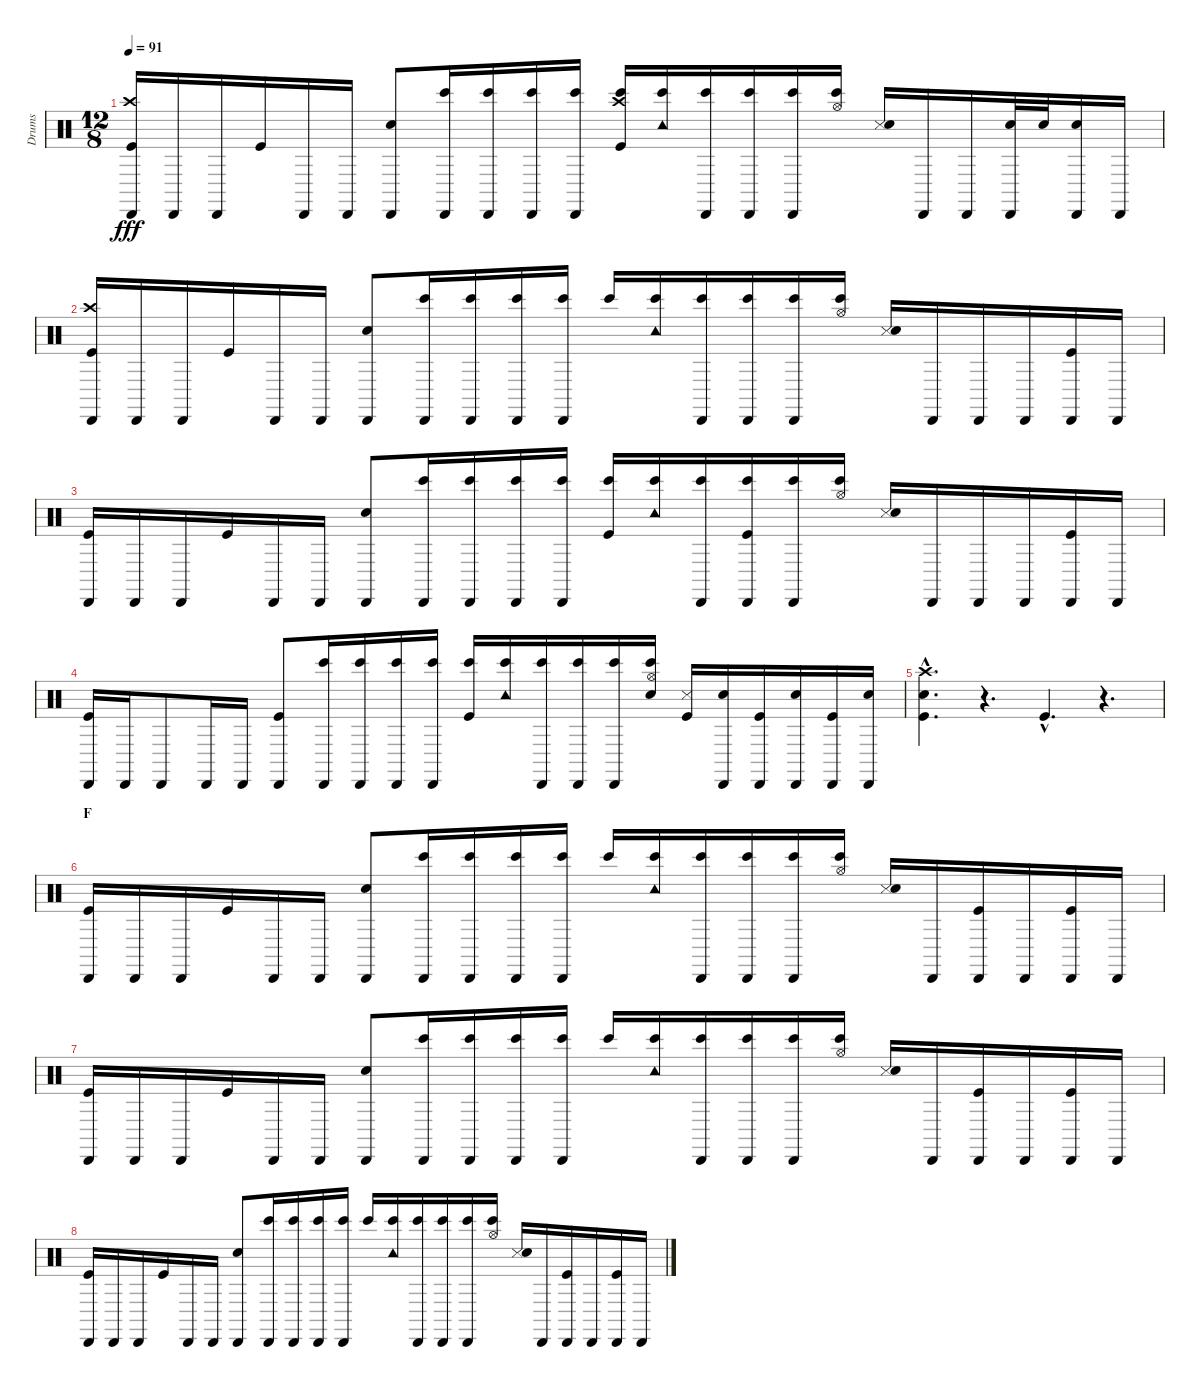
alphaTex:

\track ("Drums" "Drums") {instrument percussion}
\staff {score}
\articulation defaults
\ts (12 8)
\tempo 91
\clef neutral
\ks c
("Cabasa (hit)" "Crash high (hit)" "Kick (hit)").16{dy fff} "Cabasa (hit)".16 "Cabasa (hit)".16 "Kick (hit)".16 "Cabasa (hit)".16 "Cabasa (hit)".16 ("Cabasa (hit)" "Snare (hit) 2").8 ("Cabasa (hit)" "Bongo High (hit)").16 ("Cabasa (hit)" "Bongo High (hit)").16 ("Cabasa (hit)" "Bongo High (hit)").16 ("Cabasa (hit)" "Bongo High (hit)").16 ("Crash high (hit)" "Bongo High (hit)" "Kick (hit)").16 ("Tambourine (hit)" "Bongo High (hit)").16 ("Cabasa (hit)" "Bongo High (hit)").16 ("Cabasa (hit)" "Bongo High (hit)").16 ("Cabasa (hit)" "Bongo High (hit)").16 ("Hi-Hat (open)" "Bongo High (hit)").16 ("Snare (side stick) 3" "Electric Snare (hit)").16 "Cabasa (hit)".16 "Cabasa (hit)".16 ("Cabasa (hit)" "Snare (hit) 2").32 "Snare (hit) 2".32 ("Cabasa (hit)" "Snare (hit) 2").16 "Cabasa (hit)".16 |
("Cabasa (hit)" "Crash high (hit)" "Kick (hit)").16 "Cabasa (hit)".16 "Cabasa (hit)".16 "Kick (hit)".16 "Cabasa (hit)".16 "Cabasa (hit)".16 ("Cabasa (hit)" "Snare (hit) 2").8 ("Cabasa (hit)" "Bongo High (hit)").16 ("Cabasa (hit)" "Bongo High (hit)").16 ("Cabasa (hit)" "Bongo High (hit)").16 ("Cabasa (hit)" "Bongo High (hit)").16 "Bongo High (hit)".16 ("Tambourine (hit)" "Bongo High (hit)").16 ("Cabasa (hit)" "Bongo High (hit)").16 ("Cabasa (hit)" "Bongo High (hit)").16 ("Cabasa (hit)" "Bongo High (hit)").16 ("Hi-Hat (open)" "Bongo High (hit)").16 ("Snare (side stick) 3" "Electric Snare (hit)").16 "Cabasa (hit)".16 "Cabasa (hit)".16 "Cabasa (hit)".16 ("Cabasa (hit)" "Kick (hit)").16 "Cabasa (hit)".16 |
("Cabasa (hit)" "Kick (hit)").16 "Cabasa (hit)".16 "Cabasa (hit)".16 "Kick (hit)".16 "Cabasa (hit)".16 "Cabasa (hit)".16 ("Cabasa (hit)" "Snare (hit) 2").8 ("Cabasa (hit)" "Bongo High (hit)").16 ("Cabasa (hit)" "Bongo High (hit)").16 ("Cabasa (hit)" "Bongo High (hit)").16 ("Cabasa (hit)" "Bongo High (hit)").16 ("Bongo High (hit)" "Kick (hit)").16 ("Tambourine (hit)" "Bongo High (hit)").16 ("Cabasa (hit)" "Bongo High (hit)").16 ("Cabasa (hit)" "Bongo High (hit)" "Kick (hit)").16 ("Cabasa (hit)" "Bongo High (hit)").16 ("Hi-Hat (open)" "Bongo High (hit)").16 ("Snare (side stick) 3" "Snare (hit) 2").16 "Cabasa (hit)".16 "Cabasa (hit)".16 "Cabasa (hit)".16 ("Cabasa (hit)" "Kick (hit)").16 "Cabasa (hit)".16 |
("Cabasa (hit)" "Kick (hit)").16 "Cabasa (hit)".16 "Cabasa (hit)".8 "Cabasa (hit)".16 "Cabasa (hit)".16 ("Cabasa (hit)" "Kick (hit)").8 ("Cabasa (hit)" "Bongo High (hit)").16 ("Cabasa (hit)" "Bongo High (hit)").16 ("Cabasa (hit)" "Bongo High (hit)").16 ("Cabasa (hit)" "Bongo High (hit)").16 ("Bongo High (hit)" "Kick (hit)").16 ("Tambourine (hit)" "Bongo High (hit)").16 ("Cabasa (hit)" "Bongo High (hit)").16 ("Cabasa (hit)" "Bongo High (hit)").16 ("Cabasa (hit)" "Bongo High (hit)").16 ("Hi-Hat (open)" "Bongo High (hit)" "Snare (hit) 2").16 ("Snare (side stick) 3" "Kick (hit)").16 ("Cabasa (hit)" "Snare (hit) 2").16 ("Cabasa (hit)" "Kick (hit)").16 ("Cabasa (hit)" "Snare (hit) 2").16 ("Cabasa (hit)" "Kick (hit)").16 ("Cabasa (hit)" "Snare (hit) 2").16 |
("Crash high (hit)"{hac} "Snare (hit) 2"{hac} "Kick (hit)"{hac}).4{d} r.4{d} "Kick (hit)"{hac}.4{d} r.4{d} |
\section ("" "F")
("Cabasa (hit)" "Kick (hit)").16 "Cabasa (hit)".16 "Cabasa (hit)".16 "Kick (hit)".16 "Cabasa (hit)".16 "Cabasa (hit)".16 ("Cabasa (hit)" "Snare (hit) 2").8 ("Cabasa (hit)" "Bongo High (hit)").16 ("Cabasa (hit)" "Bongo High (hit)").16 ("Cabasa (hit)" "Bongo High (hit)").16 ("Cabasa (hit)" "Bongo High (hit)").16 "Bongo High (hit)".16 ("Tambourine (hit)" "Bongo High (hit)").16 ("Cabasa (hit)" "Bongo High (hit)").16 ("Cabasa (hit)" "Bongo High (hit)").16 ("Cabasa (hit)" "Bongo High (hit)").16 ("Hi-Hat (open)" "Bongo High (hit)").16 ("Snare (side stick) 3" "Electric Snare (hit)").16 "Cabasa (hit)".16 ("Cabasa (hit)" "Kick (hit)").16 "Cabasa (hit)".16 ("Cabasa (hit)" "Kick (hit)").16 "Cabasa (hit)".16 |
("Cabasa (hit)" "Kick (hit)").16 "Cabasa (hit)".16 "Cabasa (hit)".16 "Kick (hit)".16 "Cabasa (hit)".16 "Cabasa (hit)".16 ("Cabasa (hit)" "Snare (hit) 2").8 ("Cabasa (hit)" "Bongo High (hit)").16 ("Cabasa (hit)" "Bongo High (hit)").16 ("Cabasa (hit)" "Bongo High (hit)").16 ("Cabasa (hit)" "Bongo High (hit)").16 "Bongo High (hit)".16 ("Tambourine (hit)" "Bongo High (hit)").16 ("Cabasa (hit)" "Bongo High (hit)").16 ("Cabasa (hit)" "Bongo High (hit)").16 ("Cabasa (hit)" "Bongo High (hit)").16 ("Hi-Hat (open)" "Bongo High (hit)").16 ("Snare (side stick) 3" "Electric Snare (hit)").16 "Cabasa (hit)".16 ("Cabasa (hit)" "Kick (hit)").16 "Cabasa (hit)".16 ("Cabasa (hit)" "Kick (hit)").16 "Cabasa (hit)".16 |
("Cabasa (hit)" "Kick (hit)").16 "Cabasa (hit)".16 "Cabasa (hit)".16 "Kick (hit)".16 "Cabasa (hit)".16 "Cabasa (hit)".16 ("Cabasa (hit)" "Snare (hit) 2").8 ("Cabasa (hit)" "Bongo High (hit)").16 ("Cabasa (hit)" "Bongo High (hit)").16 ("Cabasa (hit)" "Bongo High (hit)").16 ("Cabasa (hit)" "Bongo High (hit)").16 "Bongo High (hit)".16 ("Tambourine (hit)" "Bongo High (hit)").16 ("Cabasa (hit)" "Bongo High (hit)").16 ("Cabasa (hit)" "Bongo High (hit)").16 ("Cabasa (hit)" "Bongo High (hit)").16 ("Hi-Hat (open)" "Bongo High (hit)").16 ("Snare (side stick) 3" "Electric Snare (hit)").16 "Cabasa (hit)".16 ("Cabasa (hit)" "Kick (hit)").16 "Cabasa (hit)".16 ("Cabasa (hit)" "Kick (hit)").16 "Cabasa (hit)".16
